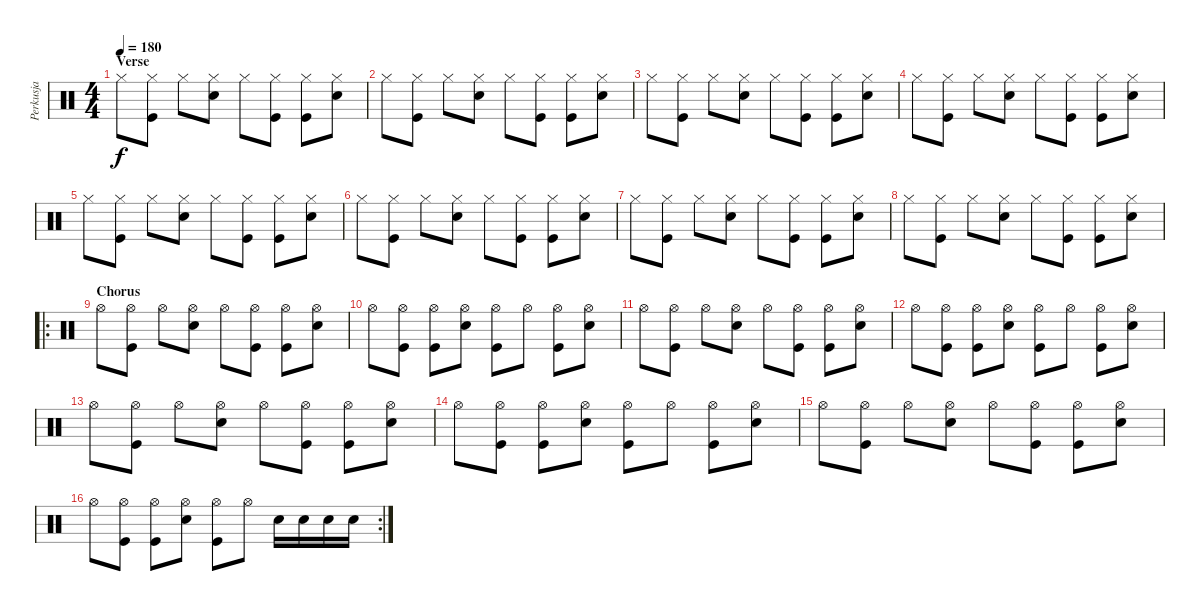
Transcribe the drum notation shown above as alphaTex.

\track ("Perkusja" "Perkusja") {instrument percussion}
\staff {score}
\articulation defaults
\ts (4 4)
\section ("" "Verse")
\tempo 180
\clef neutral
\ks c "Hi-Hat (closed)".8{dy f}
("Hi-Hat (closed)" "Kick (hit)").8 "Hi-Hat (closed)".8 ("Hi-Hat (closed)" "Electric Snare (hit)").8 "Hi-Hat (closed)".8 ("Hi-Hat (closed)" "Kick (hit)").8 ("Hi-Hat (closed)" "Kick (hit)").8 ("Hi-Hat (closed)" "Electric Snare (hit)").8 |
"Hi-Hat (closed)".8 ("Hi-Hat (closed)" "Kick (hit)").8 "Hi-Hat (closed)".8 ("Hi-Hat (closed)" "Electric Snare (hit)").8 "Hi-Hat (closed)".8 ("Hi-Hat (closed)" "Kick (hit)").8 ("Hi-Hat (closed)" "Kick (hit)").8 ("Hi-Hat (closed)" "Electric Snare (hit)").8 |
"Hi-Hat (closed)".8 ("Hi-Hat (closed)" "Kick (hit)").8 "Hi-Hat (closed)".8 ("Hi-Hat (closed)" "Electric Snare (hit)").8 "Hi-Hat (closed)".8 ("Hi-Hat (closed)" "Kick (hit)").8 ("Hi-Hat (closed)" "Kick (hit)").8 ("Hi-Hat (closed)" "Electric Snare (hit)").8 |
"Hi-Hat (closed)".8 ("Hi-Hat (closed)" "Kick (hit)").8 "Hi-Hat (closed)".8 ("Hi-Hat (closed)" "Electric Snare (hit)").8 "Hi-Hat (closed)".8 ("Hi-Hat (closed)" "Kick (hit)").8 ("Hi-Hat (closed)" "Kick (hit)").8 ("Hi-Hat (closed)" "Electric Snare (hit)").8 |
"Hi-Hat (closed)".8 ("Hi-Hat (closed)" "Kick (hit)").8 "Hi-Hat (closed)".8 ("Hi-Hat (closed)" "Electric Snare (hit)").8 "Hi-Hat (closed)".8 ("Hi-Hat (closed)" "Kick (hit)").8 ("Hi-Hat (closed)" "Kick (hit)").8 ("Hi-Hat (closed)" "Electric Snare (hit)").8 |
"Hi-Hat (closed)".8 ("Hi-Hat (closed)" "Kick (hit)").8 "Hi-Hat (closed)".8 ("Hi-Hat (closed)" "Electric Snare (hit)").8 "Hi-Hat (closed)".8 ("Hi-Hat (closed)" "Kick (hit)").8 ("Hi-Hat (closed)" "Kick (hit)").8 ("Hi-Hat (closed)" "Electric Snare (hit)").8 |
"Hi-Hat (closed)".8 ("Hi-Hat (closed)" "Kick (hit)").8 "Hi-Hat (closed)".8 ("Hi-Hat (closed)" "Electric Snare (hit)").8 "Hi-Hat (closed)".8 ("Hi-Hat (closed)" "Kick (hit)").8 ("Hi-Hat (closed)" "Kick (hit)").8 ("Hi-Hat (closed)" "Electric Snare (hit)").8 |
"Hi-Hat (closed)".8 ("Hi-Hat (closed)" "Kick (hit)").8 "Hi-Hat (closed)".8 ("Hi-Hat (closed)" "Electric Snare (hit)").8 "Hi-Hat (closed)".8 ("Hi-Hat (closed)" "Kick (hit)").8 ("Hi-Hat (closed)" "Kick (hit)").8 ("Hi-Hat (closed)" "Electric Snare (hit)").8 |
\ro
\section ("" "Chorus")
"Hi-Hat (open)".8 ("Hi-Hat (open)" "Kick (hit)").8 "Hi-Hat (open)".8 ("Hi-Hat (open)" "Electric Snare (hit)").8 "Hi-Hat (open)".8 ("Hi-Hat (open)" "Kick (hit)").8 ("Hi-Hat (open)" "Kick (hit)").8 ("Hi-Hat (open)" "Electric Snare (hit)").8 |
"Hi-Hat (open)".8 ("Hi-Hat (open)" "Kick (hit)").8 ("Hi-Hat (open)" "Kick (hit)").8 ("Hi-Hat (open)" "Electric Snare (hit)").8 ("Hi-Hat (open)" "Kick (hit)").8 "Hi-Hat (open)".8 ("Hi-Hat (open)" "Kick (hit)").8 ("Hi-Hat (open)" "Electric Snare (hit)").8 |
"Hi-Hat (open)".8 ("Hi-Hat (open)" "Kick (hit)").8 "Hi-Hat (open)".8 ("Hi-Hat (open)" "Electric Snare (hit)").8 "Hi-Hat (open)".8 ("Hi-Hat (open)" "Kick (hit)").8 ("Hi-Hat (open)" "Kick (hit)").8 ("Hi-Hat (open)" "Electric Snare (hit)").8 |
"Hi-Hat (open)".8 ("Hi-Hat (open)" "Kick (hit)").8 ("Hi-Hat (open)" "Kick (hit)").8 ("Hi-Hat (open)" "Electric Snare (hit)").8 ("Hi-Hat (open)" "Kick (hit)").8 "Hi-Hat (open)".8 ("Hi-Hat (open)" "Kick (hit)").8 ("Hi-Hat (open)" "Electric Snare (hit)").8 |
"Hi-Hat (open)".8 ("Hi-Hat (open)" "Kick (hit)").8 "Hi-Hat (open)".8 ("Hi-Hat (open)" "Electric Snare (hit)").8 "Hi-Hat (open)".8 ("Hi-Hat (open)" "Kick (hit)").8 ("Hi-Hat (open)" "Kick (hit)").8 ("Hi-Hat (open)" "Electric Snare (hit)").8 |
"Hi-Hat (open)".8 ("Hi-Hat (open)" "Kick (hit)").8 ("Hi-Hat (open)" "Kick (hit)").8 ("Hi-Hat (open)" "Electric Snare (hit)").8 ("Hi-Hat (open)" "Kick (hit)").8 "Hi-Hat (open)".8 ("Hi-Hat (open)" "Kick (hit)").8 ("Hi-Hat (open)" "Electric Snare (hit)").8 |
"Hi-Hat (open)".8 ("Hi-Hat (open)" "Kick (hit)").8 "Hi-Hat (open)".8 ("Hi-Hat (open)" "Electric Snare (hit)").8 "Hi-Hat (open)".8 ("Hi-Hat (open)" "Kick (hit)").8 ("Hi-Hat (open)" "Kick (hit)").8 ("Hi-Hat (open)" "Electric Snare (hit)").8 |
\rc 2 "Hi-Hat (open)".8
("Hi-Hat (open)" "Kick (hit)").8 ("Hi-Hat (open)" "Kick (hit)").8 ("Hi-Hat (open)" "Electric Snare (hit)").8 ("Hi-Hat (open)" "Kick (hit)").8 "Hi-Hat (open)".8 "Electric Snare (hit)".16 "Electric Snare (hit)".16 "Electric Snare (hit)".16 "Electric Snare (hit)".16
